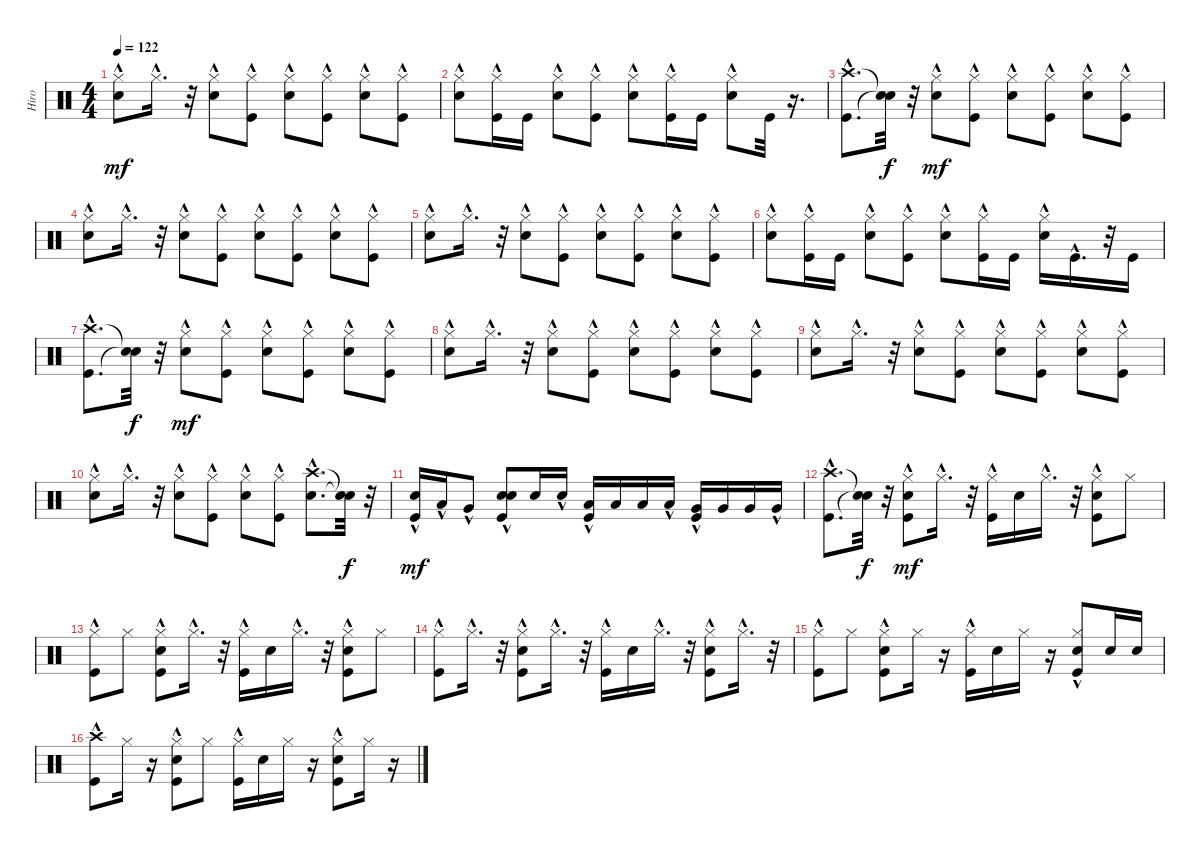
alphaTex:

\track ("Hiro" "Hiro") {instrument percussion}
\staff {score}
\articulation defaults
\ts (4 4)
\tempo 122
\clef neutral
\ks c
("Electric Snare (hit)"{hac} "Hi-Hat (closed)"{hac}).8{dy mf} "Hi-Hat (closed)"{hac}.16{d} r.32 ("Hi-Hat (closed)"{hac} "Electric Snare (hit)"{hac}).8 ("Kick (hit)"{hac} "Hi-Hat (closed)"{hac}).8 ("Hi-Hat (closed)"{hac} "Electric Snare (hit)"{hac}).8 ("Kick (hit)"{hac} "Hi-Hat (closed)"{hac}).8 ("Hi-Hat (closed)"{hac} "Electric Snare (hit)"{hac}).8 ("Kick (hit)"{hac} "Hi-Hat (closed)"{hac}).8 |
("Hi-Hat (closed)"{hac} "Electric Snare (hit)"{hac}).8 ("Hi-Hat (closed)"{hac} "Kick (hit)").16 "Kick (hit)".16 ("Hi-Hat (closed)"{hac} "Electric Snare (hit)"{hac}).8 ("Hi-Hat (closed)"{hac} "Kick (hit)"{hac}).8 ("Hi-Hat (closed)"{hac} "Electric Snare (hit)"{hac}).8 ("Hi-Hat (closed)"{hac} "Kick (hit)").16 "Kick (hit)".16 ("Hi-Hat (closed)"{hac} "Electric Snare (hit)"{hac}).8 "Kick (hit)".32 r.16{d} |
("Crash high (hit)"{hac} "Kick (hit)"{hac}).8{d} ("Snare (hit)"{t} "Snare (hit)"{t}).32{dy f} r.32 ("Electric Snare (hit)"{hac} "Hi-Hat (closed)").8{dy mf} ("Hi-Hat (closed)"{hac} "Kick (hit)"{hac}).8 ("Electric Snare (hit)"{hac} "Hi-Hat (closed)"{hac}).8 ("Hi-Hat (closed)"{hac} "Kick (hit)"{hac}).8 ("Electric Snare (hit)"{hac} "Hi-Hat (closed)"{hac}).8 ("Hi-Hat (closed)"{hac} "Kick (hit)"{hac}).8 |
("Hi-Hat (closed)"{hac} "Electric Snare (hit)"{hac}).8 "Hi-Hat (closed)"{hac}.16{d} r.32 ("Electric Snare (hit)"{hac} "Hi-Hat (closed)"{hac}).8 ("Hi-Hat (closed)"{hac} "Kick (hit)"{hac}).8 ("Electric Snare (hit)"{hac} "Hi-Hat (closed)"{hac}).8 ("Hi-Hat (closed)"{hac} "Kick (hit)"{hac}).8 ("Electric Snare (hit)"{hac} "Hi-Hat (closed)"{hac}).8 ("Hi-Hat (closed)"{hac} "Kick (hit)"{hac}).8 |
("Hi-Hat (closed)"{hac} "Electric Snare (hit)"{hac}).8 "Hi-Hat (closed)"{hac}.16{d} r.32 ("Electric Snare (hit)"{hac} "Hi-Hat (closed)"{hac}).8 ("Hi-Hat (closed)"{hac} "Kick (hit)"{hac}).8 ("Electric Snare (hit)"{hac} "Hi-Hat (closed)"{hac}).8 ("Hi-Hat (closed)"{hac} "Kick (hit)"{hac}).8 ("Electric Snare (hit)"{hac} "Hi-Hat (closed)"{hac}).8 ("Hi-Hat (closed)"{hac} "Kick (hit)"{hac}).8 |
("Electric Snare (hit)"{hac} "Hi-Hat (closed)"{hac}).8 ("Kick (hit)" "Hi-Hat (closed)"{hac}).16 "Kick (hit)".16 ("Electric Snare (hit)"{hac} "Hi-Hat (closed)"{hac}).8 ("Kick (hit)"{hac} "Hi-Hat (closed)"{hac}).8 ("Electric Snare (hit)"{hac} "Hi-Hat (closed)"{hac}).8 ("Kick (hit)" "Hi-Hat (closed)"{hac}).16 "Kick (hit)".16 ("Electric Snare (hit)"{hac} "Hi-Hat (closed)"{hac}).16 "Kick (hit)"{hac}.16{d} r.32 "Kick (hit)".16 |
("Crash high (hit)"{hac} "Kick (hit)"{hac}).8{d} ("Snare (hit)"{t} "Snare (hit)"{t}).32{dy f} r.32 ("Hi-Hat (closed)" "Electric Snare (hit)"{hac}).8{dy mf} ("Kick (hit)"{hac} "Hi-Hat (closed)"{hac}).8 ("Hi-Hat (closed)"{hac} "Electric Snare (hit)"{hac}).8 ("Kick (hit)"{hac} "Hi-Hat (closed)"{hac}).8 ("Hi-Hat (closed)"{hac} "Electric Snare (hit)"{hac}).8 ("Kick (hit)"{hac} "Hi-Hat (closed)"{hac}).8 |
("Electric Snare (hit)"{hac} "Hi-Hat (closed)"{hac}).8 "Hi-Hat (closed)"{hac}.16{d} r.32 ("Hi-Hat (closed)"{hac} "Electric Snare (hit)"{hac}).8 ("Kick (hit)"{hac} "Hi-Hat (closed)"{hac}).8 ("Hi-Hat (closed)"{hac} "Electric Snare (hit)"{hac}).8 ("Kick (hit)"{hac} "Hi-Hat (closed)"{hac}).8 ("Hi-Hat (closed)"{hac} "Electric Snare (hit)"{hac}).8 ("Kick (hit)"{hac} "Hi-Hat (closed)"{hac}).8 |
("Electric Snare (hit)"{hac} "Hi-Hat (closed)"{hac}).8 "Hi-Hat (closed)"{hac}.16{d} r.32 ("Hi-Hat (closed)"{hac} "Electric Snare (hit)"{hac}).8 ("Kick (hit)"{hac} "Hi-Hat (closed)"{hac}).8 ("Hi-Hat (closed)"{hac} "Electric Snare (hit)"{hac}).8 ("Kick (hit)"{hac} "Hi-Hat (closed)"{hac}).8 ("Hi-Hat (closed)"{hac} "Electric Snare (hit)"{hac}).8 ("Kick (hit)"{hac} "Hi-Hat (closed)"{hac}).8 |
("Electric Snare (hit)"{hac} "Hi-Hat (closed)"{hac}).8 "Hi-Hat (closed)"{hac}.16{d} r.32 ("Electric Snare (hit)"{hac} "Hi-Hat (closed)"{hac}).8 ("Kick (hit)"{hac} "Hi-Hat (closed)"{hac}).8 ("Electric Snare (hit)"{hac} "Hi-Hat (closed)"{hac}).8 ("Kick (hit)"{hac} "Hi-Hat (closed)"{hac}).8 ("Electric Snare (hit)"{hac} "Crash high (hit)"{hac}).8{d} ("Snare (hit)"{t} "Snare (hit)"{t}).32{dy f} r.32 |
("Electric Snare (hit)"{hac} "Kick (hit)"{hac}).16{dy mf} "Low Tom (hit)"{hac}.16 "Very Low Tom (hit)"{hac}.8 ("Electric Snare (hit)" "Electric Snare (hit)" "Kick (hit)"{hac}).8 "Electric Snare (hit)".16 "Electric Snare (hit)"{hac}.16 ("Low Tom (hit)" "Kick (hit)"{hac}).16 "Low Tom (hit)".16 "Low Tom (hit)".16 "Low Tom (hit)"{hac}.16 ("Very Low Tom (hit)" "Kick (hit)"{hac}).16 "Very Low Tom (hit)".16 "Very Low Tom (hit)".16 "Very Low Tom (hit)"{hac}.16 |
("Crash high (hit)"{hac} "Kick (hit)"{hac}).8{d} ("Snare (hit)"{t} "Snare (hit)"{t}).32{dy f} r.32 ("Hi-Hat (closed)" "Electric Snare (hit)"{hac} "Kick (hit)"{hac}).8{dy mf} "Hi-Hat (closed)"{hac}.16{d} r.32 ("Hi-Hat (closed)"{hac} "Kick (hit)"{hac}).16 "Electric Snare (hit)".16 "Hi-Hat (closed)"{hac}.16{d} r.32 ("Hi-Hat (closed)"{hac} "Electric Snare (hit)"{hac} "Kick (hit)"{hac}).8 "Hi-Hat (closed)".8 |
("Kick (hit)"{hac} "Hi-Hat (closed)").8 "Hi-Hat (closed)".8 ("Hi-Hat (closed)"{hac} "Electric Snare (hit)"{hac} "Kick (hit)"{hac}).8 "Hi-Hat (closed)"{hac}.16{d} r.32 ("Hi-Hat (closed)"{hac} "Kick (hit)"{hac}).16 "Electric Snare (hit)".16 "Hi-Hat (closed)"{hac}.16{d} r.32 ("Hi-Hat (closed)"{hac} "Electric Snare (hit)"{hac} "Kick (hit)"{hac}).8 "Hi-Hat (closed)".8 |
("Hi-Hat (closed)" "Kick (hit)"{hac}).8 "Hi-Hat (closed)"{hac}.16{d} r.32 ("Electric Snare (hit)"{hac} "Hi-Hat (closed)"{hac} "Kick (hit)"{hac}).8 "Hi-Hat (closed)"{hac}.16{d} r.32 ("Hi-Hat (closed)"{hac} "Kick (hit)"{hac}).16 "Electric Snare (hit)".16 "Hi-Hat (closed)"{hac}.16{d} r.32 ("Electric Snare (hit)"{hac} "Hi-Hat (closed)"{hac} "Kick (hit)"{hac}).8 "Hi-Hat (closed)"{hac}.16{d} r.32 |
("Hi-Hat (closed)"{hac} "Kick (hit)").8 "Hi-Hat (closed)".8 ("Electric Snare (hit)" "Hi-Hat (closed)" "Kick (hit)"{hac}).8 "Hi-Hat (closed)".16 r.16 ("Hi-Hat (closed)" "Kick (hit)"{hac}).16 "Electric Snare (hit)".16 "Hi-Hat (closed)".16 r.16 ("Electric Snare (hit)" "Hi-Hat (closed)" "Kick (hit)"{hac}).8 "Electric Snare (hit)".16 "Electric Snare (hit)".16 |
("Crash high (hit)"{hac} "Kick (hit)"{hac}).8 "Hi-Hat (closed)".16 r.16 ("Electric Snare (hit)" "Hi-Hat (closed)" "Kick (hit)"{hac}).8 "Hi-Hat (closed)".8 ("Hi-Hat (closed)" "Kick (hit)"{hac}).16 "Electric Snare (hit)".16 "Hi-Hat (closed)".16 r.16 ("Electric Snare (hit)"{hac} "Hi-Hat (closed)" "Kick (hit)"{hac}).8 "Hi-Hat (closed)".16 r.16
